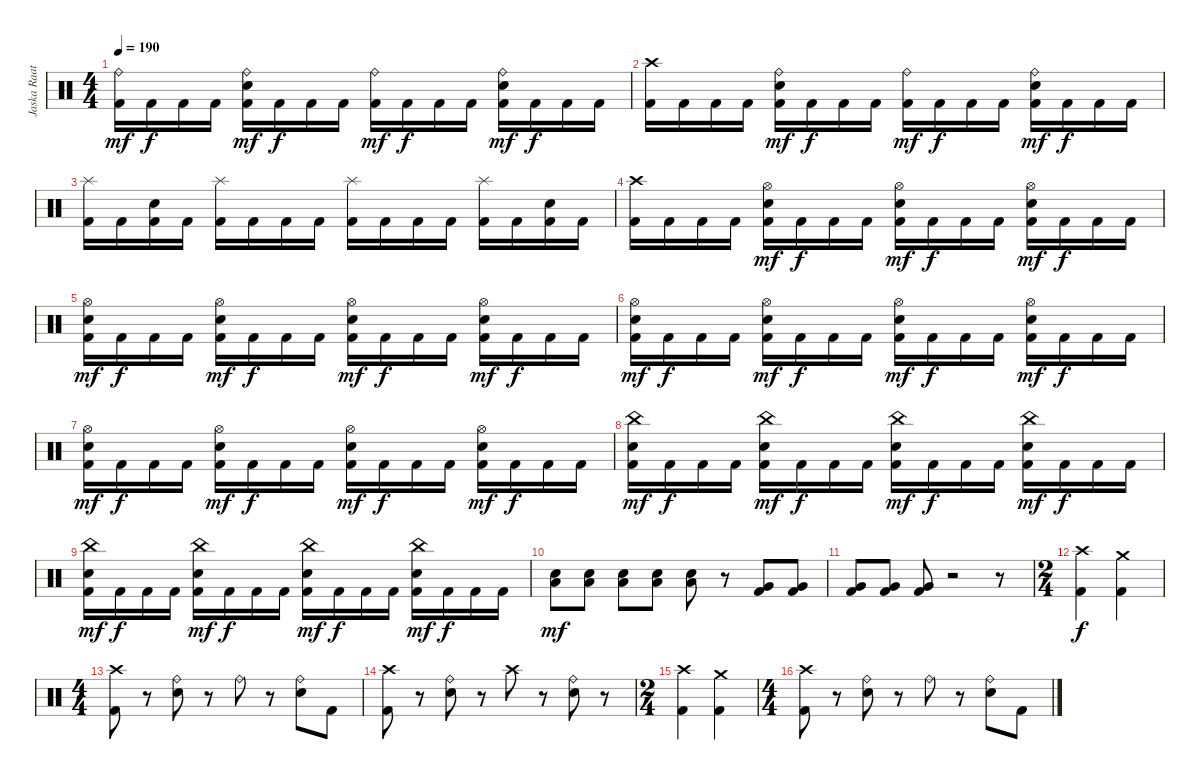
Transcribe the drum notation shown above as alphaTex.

\track ("Jaska Raatikainen" "Jaska Raat") {instrument percussion}
\staff {score}
\articulation defaults
\ts (4 4)
\tempo 190
\clef neutral
\ks c
("Ride (bell)" "Kick (hit) 2").16{dy mf} "Kick (hit) 2".16{dy f} "Kick (hit) 2".16 "Kick (hit) 2".16 ("Ride (bell)" "Snare (hit) 2" "Kick (hit) 2").16{dy mf} "Kick (hit) 2".16{dy f} "Kick (hit) 2".16 "Kick (hit) 2".16 ("Ride (bell)" "Kick (hit) 2").16{dy mf} "Kick (hit) 2".16{dy f} "Kick (hit) 2".16 "Kick (hit) 2".16 ("Ride (bell)" "Snare (hit) 2" "Kick (hit) 2").16{dy mf} "Kick (hit) 2".16{dy f} "Kick (hit) 2".16 "Kick (hit) 2".16 |
("Crash high (hit)" "Kick (hit) 2").16 "Kick (hit) 2".16 "Kick (hit) 2".16 "Kick (hit) 2".16 ("Ride (bell)" "Snare (hit) 2" "Kick (hit) 2").16{dy mf} "Kick (hit) 2".16{dy f} "Kick (hit) 2".16 "Kick (hit) 2".16 ("Ride (bell)" "Kick (hit) 2").16{dy mf} "Kick (hit) 2".16{dy f} "Kick (hit) 2".16 "Kick (hit) 2".16 ("Ride (bell)" "Snare (hit) 2" "Kick (hit) 2").16{dy mf} "Kick (hit) 2".16{dy f} "Kick (hit) 2".16 "Kick (hit) 2".16 |
("Splash (hit)" "Kick (hit) 2").16 "Kick (hit) 2".16 ("Snare (hit) 2" "Kick (hit) 2").16 "Kick (hit) 2".16 ("Splash (hit)" "Kick (hit) 2").16 "Kick (hit) 2".16 "Kick (hit) 2".16 "Kick (hit) 2".16 ("Splash (hit)" "Kick (hit) 2").16 "Kick (hit) 2".16 "Kick (hit) 2".16 "Kick (hit) 2".16 ("Splash (hit)" "Kick (hit) 2").16 "Kick (hit) 2".16 ("Snare (hit) 2" "Kick (hit) 2").16 "Kick (hit) 2".16 |
("Crash high (hit)" "Kick (hit) 2").16 "Kick (hit) 2".16 "Kick (hit) 2".16 "Kick (hit) 2".16 ("Hi-Hat (open)" "Snare (hit) 2" "Kick (hit) 2").16{dy mf} "Kick (hit) 2".16{dy f} "Kick (hit) 2".16 "Kick (hit) 2".16 ("Hi-Hat (open)" "Snare (hit) 2" "Kick (hit) 2").16{dy mf} "Kick (hit) 2".16{dy f} "Kick (hit) 2".16 "Kick (hit) 2".16 ("Hi-Hat (open)" "Snare (hit) 2" "Kick (hit) 2").16{dy mf} "Kick (hit) 2".16{dy f} "Kick (hit) 2".16 "Kick (hit) 2".16 |
("Hi-Hat (open)" "Snare (hit) 2" "Kick (hit) 2").16{dy mf} "Kick (hit) 2".16{dy f} "Kick (hit) 2".16 "Kick (hit) 2".16 ("Hi-Hat (open)" "Snare (hit) 2" "Kick (hit) 2").16{dy mf} "Kick (hit) 2".16{dy f} "Kick (hit) 2".16 "Kick (hit) 2".16 ("Hi-Hat (open)" "Snare (hit) 2" "Kick (hit) 2").16{dy mf} "Kick (hit) 2".16{dy f} "Kick (hit) 2".16 "Kick (hit) 2".16 ("Hi-Hat (open)" "Snare (hit) 2" "Kick (hit) 2").16{dy mf} "Kick (hit) 2".16{dy f} "Kick (hit) 2".16 "Kick (hit) 2".16 |
("Hi-Hat (open)" "Snare (hit) 2" "Kick (hit) 2").16{dy mf} "Kick (hit) 2".16{dy f} "Kick (hit) 2".16 "Kick (hit) 2".16 ("Hi-Hat (open)" "Snare (hit) 2" "Kick (hit) 2").16{dy mf} "Kick (hit) 2".16{dy f} "Kick (hit) 2".16 "Kick (hit) 2".16 ("Hi-Hat (open)" "Snare (hit) 2" "Kick (hit) 2").16{dy mf} "Kick (hit) 2".16{dy f} "Kick (hit) 2".16 "Kick (hit) 2".16 ("Hi-Hat (open)" "Snare (hit) 2" "Kick (hit) 2").16{dy mf} "Kick (hit) 2".16{dy f} "Kick (hit) 2".16 "Kick (hit) 2".16 |
("Hi-Hat (open)" "Snare (hit) 2" "Kick (hit) 2").16{dy mf} "Kick (hit) 2".16{dy f} "Kick (hit) 2".16 "Kick (hit) 2".16 ("Hi-Hat (open)" "Snare (hit) 2" "Kick (hit) 2").16{dy mf} "Kick (hit) 2".16{dy f} "Kick (hit) 2".16 "Kick (hit) 2".16 ("Hi-Hat (open)" "Snare (hit) 2" "Kick (hit) 2").16{dy mf} "Kick (hit) 2".16{dy f} "Kick (hit) 2".16 "Kick (hit) 2".16 ("Hi-Hat (open)" "Snare (hit) 2" "Kick (hit) 2").16{dy mf} "Kick (hit) 2".16{dy f} "Kick (hit) 2".16 "Kick (hit) 2".16 |
("China (hit)" "Snare (hit) 2" "Kick (hit) 2").16{dy mf} "Kick (hit) 2".16{dy f} "Kick (hit) 2".16 "Kick (hit) 2".16 ("China (hit)" "Snare (hit) 2" "Kick (hit) 2").16{dy mf} "Kick (hit) 2".16{dy f} "Kick (hit) 2".16 "Kick (hit) 2".16 ("China (hit)" "Snare (hit) 2" "Kick (hit) 2").16{dy mf} "Kick (hit) 2".16{dy f} "Kick (hit) 2".16 "Kick (hit) 2".16 ("China (hit)" "Snare (hit) 2" "Kick (hit) 2").16{dy mf} "Kick (hit) 2".16{dy f} "Kick (hit) 2".16 "Kick (hit) 2".16 |
("China (hit)" "Snare (hit) 2" "Kick (hit) 2").16{dy mf} "Kick (hit) 2".16{dy f} "Kick (hit) 2".16 "Kick (hit) 2".16 ("China (hit)" "Snare (hit) 2" "Kick (hit) 2").16{dy mf} "Kick (hit) 2".16{dy f} "Kick (hit) 2".16 "Kick (hit) 2".16 ("China (hit)" "Snare (hit) 2" "Kick (hit) 2").16{dy mf} "Kick (hit) 2".16{dy f} "Kick (hit) 2".16 "Kick (hit) 2".16 ("China (hit)" "Snare (hit) 2" "Kick (hit) 2").16{dy mf} "Kick (hit) 2".16{dy f} "Kick (hit) 2".16 "Kick (hit) 2".16 |
("Snare (hit) 2" "Low Tom (hit)").8{dy mf} ("Snare (hit) 2" "Low Tom (hit)").8 ("Snare (hit) 2" "Low Tom (hit)").8 ("Snare (hit) 2" "Low Tom (hit)").8 ("Snare (hit) 2" "Low Tom (hit)").8 r.8 ("Kick (hit) 2" "Very Low Tom (hit)").8 ("Kick (hit) 2" "Very Low Tom (hit)").8 |
("Kick (hit) 2" "Very Low Tom (hit)").8 ("Kick (hit) 2" "Very Low Tom (hit)").8 ("Kick (hit) 2" "Very Low Tom (hit)").8 r.2 r.8 |
\ts (2 4)
("Crash high (hit)" "Kick (hit) 2").4{dy f} ("Crash medium (hit)" "Kick (hit) 2").4 |
\ts (4 4)
("Crash high (hit)" "Kick (hit) 2").8 r.8 ("Ride (bell)" "Snare (hit) 2").8 r.8 "Ride (bell)".8 r.8 ("Ride (bell)" "Snare (hit) 2").8 "Kick (hit) 2".8 |
("Crash high (hit)" "Kick (hit) 2").8 r.8 ("Ride (bell)" "Snare (hit) 2").8 r.8 "Crash high (hit)".8 r.8 ("Ride (bell)" "Snare (hit) 2").8 r.8 |
\ts (2 4)
("Crash high (hit)" "Kick (hit) 2").4 ("Crash medium (hit)" "Kick (hit) 2").4 |
\ts (4 4)
("Crash high (hit)" "Kick (hit) 2").8 r.8 ("Ride (bell)" "Snare (hit) 2").8 r.8 "Ride (bell)".8 r.8 ("Ride (bell)" "Snare (hit) 2").8 "Kick (hit) 2".8
